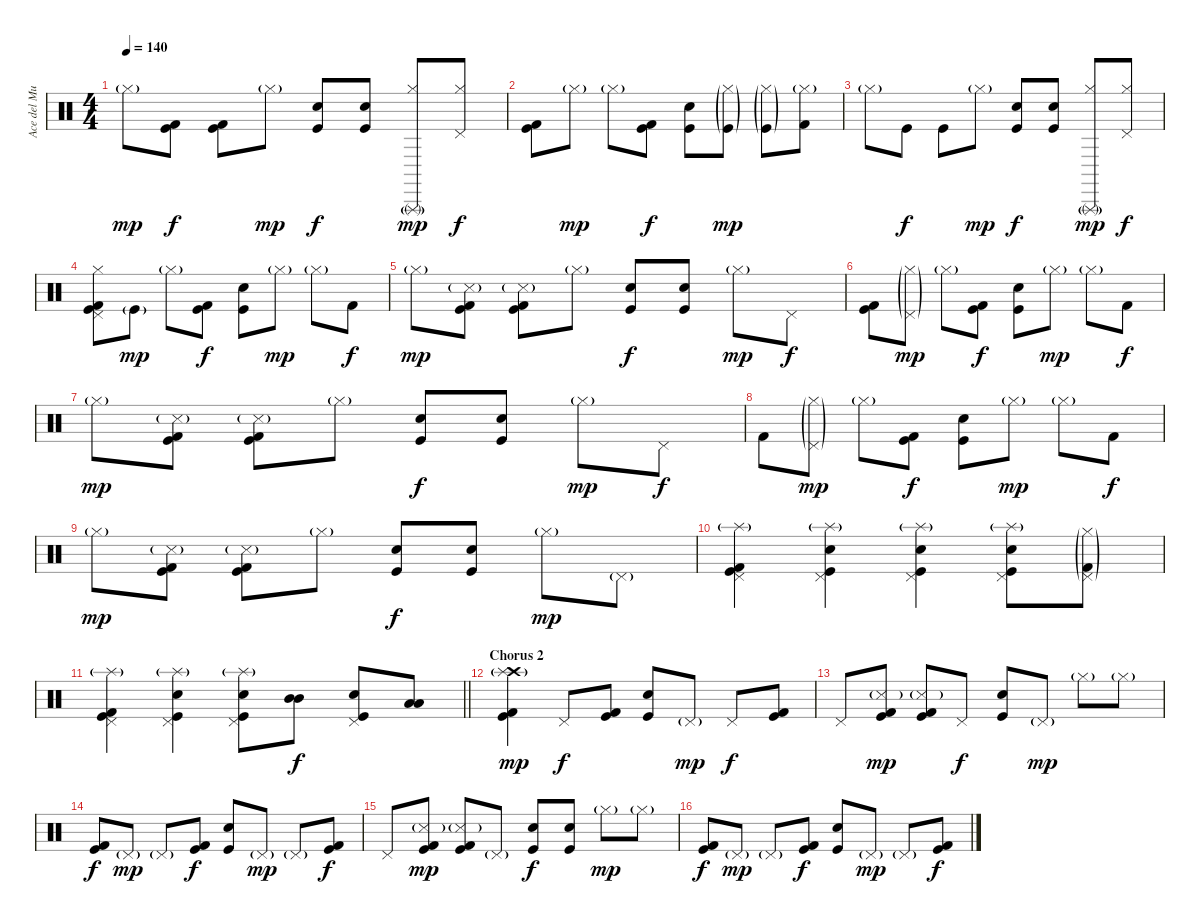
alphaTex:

\track ("Ace del Mundo(Drums)" "Ace del Mu") {instrument percussion}
\staff {score}
\articulation defaults
\ts (4 4)
\tempo 140
\clef neutral
\ks c "Hi-Hat (closed)"{g}.8{dy mp}
("Kick (hit) 2" "Kick (hit)").8{dy f} ("Kick (hit) 2" "Kick (hit)").8 "Hi-Hat (closed)"{g}.8{dy mp} ("Electric Snare (hit)" "Kick (hit)").8{dy f} ("Electric Snare (hit)" "Kick (hit)").8 ("Hi-Hat (closed)" "Triangle (rnute)"{g}).8{dy mp} ("Pedal Hi-Hat (hit)" "Hi-Hat (closed)").8{dy f} |
("Kick (hit) 2" "Kick (hit)").8 "Hi-Hat (closed)"{g}.8{dy mp} "Hi-Hat (closed)"{g}.8 ("Kick (hit) 2" "Kick (hit)").8{dy f} ("Electric Snare (hit)" "Kick (hit)").8 ("Hi-Hat (closed)"{g} "Kick (hit)"{g}).8{dy mp} ("Hi-Hat (closed)"{g} "Kick (hit)"{g}).8 ("Hi-Hat (closed)"{g} "Kick (hit) 2").8 |
"Hi-Hat (closed)"{g}.8 "Kick (hit)".8{dy f} "Kick (hit)".8 "Hi-Hat (closed)"{g}.8{dy mp} ("Electric Snare (hit)" "Kick (hit)").8{dy f} ("Electric Snare (hit)" "Kick (hit)").8 ("Hi-Hat (closed)" "Triangle (rnute)"{g}).8{dy mp} ("Pedal Hi-Hat (hit)" "Hi-Hat (closed)").8{dy f} |
("Pedal Hi-Hat (hit)" "Hi-Hat (closed)" "Kick (hit) 2" "Kick (hit)").8 "Kick (hit)"{g}.8{dy mp} "Hi-Hat (closed)"{g}.8 ("Kick (hit) 2" "Kick (hit)").8{dy f} ("Electric Snare (hit)" "Kick (hit)").8 "Hi-Hat (closed)"{g}.8{dy mp} "Hi-Hat (closed)"{g}.8 "Kick (hit) 2".8{dy f} |
"Hi-Hat (closed)"{g}.8{dy mp} ("Kick (hit) 2" "Kick (hit)" "Snare (side stick) 3"{g}).8 ("Kick (hit) 2" "Kick (hit)" "Snare (side stick) 3"{g}).8 "Hi-Hat (closed)"{g}.8 ("Electric Snare (hit)" "Kick (hit)").8{dy f} ("Electric Snare (hit)" "Kick (hit)").8 "Hi-Hat (closed)"{g}.8{dy mp} "Pedal Hi-Hat (hit)".8{dy f} |
("Kick (hit) 2" "Kick (hit)").8 ("Hi-Hat (closed)"{g} "Pedal Hi-Hat (hit)"{g}).8{dy mp} "Hi-Hat (closed)"{g}.8 ("Kick (hit) 2" "Kick (hit)").8{dy f} ("Electric Snare (hit)" "Kick (hit)").8 "Hi-Hat (closed)"{g}.8{dy mp} "Hi-Hat (closed)"{g}.8 "Kick (hit) 2".8{dy f} |
"Hi-Hat (closed)"{g}.8{dy mp} ("Kick (hit) 2" "Kick (hit)" "Snare (side stick) 3"{g}).8 ("Kick (hit) 2" "Kick (hit)" "Snare (side stick) 3"{g}).8 "Hi-Hat (closed)"{g}.8 ("Electric Snare (hit)" "Kick (hit)").8{dy f} ("Electric Snare (hit)" "Kick (hit)").8 "Hi-Hat (closed)"{g}.8{dy mp} "Pedal Hi-Hat (hit)".8{dy f} |
"Kick (hit) 2".8 ("Hi-Hat (closed)"{g} "Pedal Hi-Hat (hit)"{g}).8{dy mp} "Hi-Hat (closed)"{g}.8 ("Kick (hit) 2" "Kick (hit)").8{dy f} ("Electric Snare (hit)" "Kick (hit)").8 "Hi-Hat (closed)"{g}.8{dy mp} "Hi-Hat (closed)"{g}.8 "Kick (hit) 2".8{dy f} |
"Hi-Hat (closed)"{g}.8{dy mp} ("Kick (hit) 2" "Kick (hit)" "Snare (side stick) 3"{g}).8 ("Kick (hit) 2" "Kick (hit)" "Snare (side stick) 3"{g}).8 "Hi-Hat (closed)"{g}.8 ("Electric Snare (hit)" "Kick (hit)").8{dy f} ("Electric Snare (hit)" "Kick (hit)").8 "Hi-Hat (closed)"{g}.8{dy mp} "Pedal Hi-Hat (hit)"{g}.8 |
("Pedal Hi-Hat (hit)" "Kick (hit) 2" "Kick (hit)" "Splash (hit)"{g}).4 ("Pedal Hi-Hat (hit)" "Electric Snare (hit)" "Kick (hit)" "Splash (hit)"{g}).4 ("Pedal Hi-Hat (hit)" "Electric Snare (hit)" "Kick (hit)" "Splash (hit)"{g}).4 ("Pedal Hi-Hat (hit)" "Electric Snare (hit)" "Kick (hit)" "Splash (hit)"{g}).8 ("Pedal Hi-Hat (hit)"{g} "Hi-Hat (closed)"{g} "Kick (hit) 2"{g}).8 |
\barLineRight lightlight
("Pedal Hi-Hat (hit)" "Kick (hit) 2" "Kick (hit)" "Splash (hit)"{g}).4 ("Pedal Hi-Hat (hit)" "Electric Snare (hit)" "Kick (hit)" "Splash (hit)"{g}).4 ("Pedal Hi-Hat (hit)" "Electric Snare (hit)" "Kick (hit)" "Splash (hit)"{g}).8 ("Mid Tom (hit)" "Mid Tom (hit)").8{dy f} ("Pedal Hi-Hat (hit)" "Electric Snare (hit)" "Kick (hit)").8 ("Low Tom (hit)" "Low Tom (hit)").8 |
\section ("" "Chorus 2")
("Crash high (hit)"{g} "Splash (hit)"{g} "Kick (hit) 2" "Kick (hit)").4{dy mp} "Pedal Hi-Hat (hit)".8{dy f} ("Kick (hit) 2" "Kick (hit)").8 ("Electric Snare (hit)" "Kick (hit)").8 "Pedal Hi-Hat (hit)"{g}.8{dy mp} "Pedal Hi-Hat (hit)".8{dy f} ("Kick (hit) 2" "Kick (hit)").8 |
"Pedal Hi-Hat (hit)".8 ("Kick (hit) 2" "Kick (hit)" "Snare (side stick) 3"{g}).8{dy mp} ("Kick (hit) 2" "Kick (hit)" "Snare (side stick) 3"{g}).8 "Pedal Hi-Hat (hit)".8{dy f} ("Electric Snare (hit)" "Kick (hit)").8 "Pedal Hi-Hat (hit)"{g}.8{dy mp} "Hi-Hat (closed)"{g}.8 "Hi-Hat (closed)"{g}.8 |
("Kick (hit) 2" "Kick (hit)").8{dy f} "Pedal Hi-Hat (hit)"{g}.8{dy mp} "Pedal Hi-Hat (hit)"{g}.8 ("Kick (hit) 2" "Kick (hit)").8{dy f} ("Electric Snare (hit)" "Kick (hit)").8 "Pedal Hi-Hat (hit)"{g}.8{dy mp} "Pedal Hi-Hat (hit)"{g}.8 ("Kick (hit) 2" "Kick (hit)").8{dy f} |
"Pedal Hi-Hat (hit)".8 ("Kick (hit) 2" "Kick (hit)" "Snare (side stick) 3"{g}).8{dy mp} ("Kick (hit) 2" "Kick (hit)" "Snare (side stick) 3"{g}).8 "Pedal Hi-Hat (hit)"{g}.8 ("Electric Snare (hit)" "Kick (hit)").8{dy f} ("Electric Snare (hit)" "Kick (hit)").8 "Hi-Hat (closed)"{g}.8{dy mp} "Hi-Hat (closed)"{g}.8 |
("Kick (hit) 2" "Kick (hit)").8{dy f} "Pedal Hi-Hat (hit)"{g}.8{dy mp} "Pedal Hi-Hat (hit)"{g}.8 ("Kick (hit) 2" "Kick (hit)").8{dy f} ("Electric Snare (hit)" "Kick (hit)").8 "Pedal Hi-Hat (hit)"{g}.8{dy mp} "Pedal Hi-Hat (hit)"{g}.8 ("Kick (hit) 2" "Kick (hit)").8{dy f}
